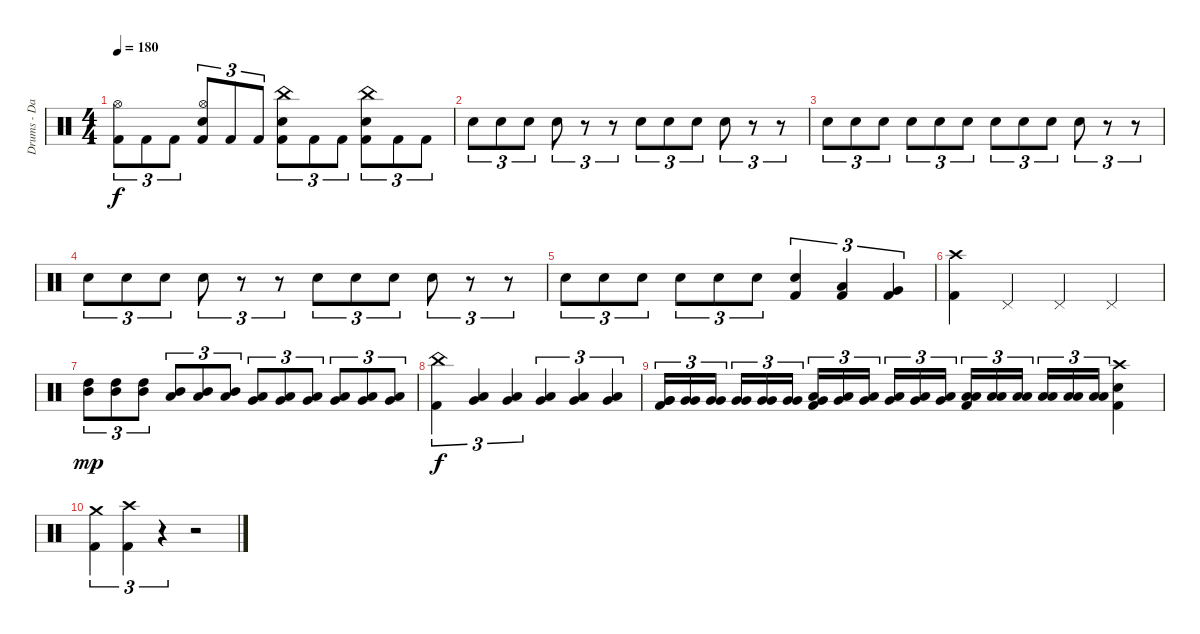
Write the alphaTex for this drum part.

\track ("Drums - Dan Zimmermann" "Drums - Da") {instrument percussion}
\staff {score}
\articulation defaults
\ts (4 4)
\tempo 180
\clef neutral
\ks c
("Kick (hit) 2" "Hi-Hat (open)").8{tu (3 2) dy f} "Kick (hit) 2".8{tu (3 2)} "Kick (hit) 2".8{tu (3 2)} ("Kick (hit) 2" "Electric Snare (hit)" "Hi-Hat (open)").8{tu (3 2)} "Kick (hit) 2".8{tu (3 2)} "Kick (hit) 2".8{tu (3 2)} ("Kick (hit) 2" "Electric Snare (hit)" "China (hit)").8{tu (3 2)} "Kick (hit) 2".8{tu (3 2)} "Kick (hit) 2".8{tu (3 2)} ("Kick (hit) 2" "Electric Snare (hit)" "China (hit)").8{tu (3 2)} "Kick (hit) 2".8{tu (3 2)} "Kick (hit) 2".8{tu (3 2)} |
"Electric Snare (hit)".8{tu (3 2)} "Electric Snare (hit)".8{tu (3 2)} "Electric Snare (hit)".8{tu (3 2)} "Electric Snare (hit)".8{tu (3 2)} r.8{tu (3 2)} r.8{tu (3 2)} "Electric Snare (hit)".8{tu (3 2)} "Electric Snare (hit)".8{tu (3 2)} "Electric Snare (hit)".8{tu (3 2)} "Electric Snare (hit)".8{tu (3 2)} r.8{tu (3 2)} r.8{tu (3 2)} |
"Electric Snare (hit)".8{tu (3 2)} "Electric Snare (hit)".8{tu (3 2)} "Electric Snare (hit)".8{tu (3 2)} "Electric Snare (hit)".8{tu (3 2)} "Electric Snare (hit)".8{tu (3 2)} "Electric Snare (hit)".8{tu (3 2)} "Electric Snare (hit)".8{tu (3 2)} "Electric Snare (hit)".8{tu (3 2)} "Electric Snare (hit)".8{tu (3 2)} "Electric Snare (hit)".8{tu (3 2)} r.8{tu (3 2)} r.8{tu (3 2)} |
"Electric Snare (hit)".8{tu (3 2)} "Electric Snare (hit)".8{tu (3 2)} "Electric Snare (hit)".8{tu (3 2)} "Electric Snare (hit)".8{tu (3 2)} r.8{tu (3 2)} r.8{tu (3 2)} "Electric Snare (hit)".8{tu (3 2)} "Electric Snare (hit)".8{tu (3 2)} "Electric Snare (hit)".8{tu (3 2)} "Electric Snare (hit)".8{tu (3 2)} r.8{tu (3 2)} r.8{tu (3 2)} |
"Electric Snare (hit)".8{tu (3 2)} "Electric Snare (hit)".8{tu (3 2)} "Electric Snare (hit)".8{tu (3 2)} "Electric Snare (hit)".8{tu (3 2)} "Electric Snare (hit)".8{tu (3 2)} "Electric Snare (hit)".8{tu (3 2)} ("Kick (hit) 2" "Electric Snare (hit)").4{tu (3 2)} ("Kick (hit) 2" "Low Tom (hit)").4{tu (3 2)} ("Kick (hit) 2" "Very Low Tom (hit)").4{tu (3 2)} |
("Kick (hit) 2" "Crash high (hit)").4 "Pedal Hi-Hat (hit)".4 "Pedal Hi-Hat (hit)".4 "Pedal Hi-Hat (hit)".4 |
("Mid Tom (hit)" "High Tom (hit)").8{tu (3 2) dy mp} ("Mid Tom (hit)" "High Tom (hit)").8{tu (3 2)} ("Mid Tom (hit)" "High Tom (hit)").8{tu (3 2)} ("Low Tom (hit)" "Mid Tom (hit)").8{tu (3 2)} ("Low Tom (hit)" "Mid Tom (hit)").8{tu (3 2)} ("Low Tom (hit)" "Mid Tom (hit)").8{tu (3 2)} ("Very Low Tom (hit)" "Low Tom (hit)").8{tu (3 2)} ("Very Low Tom (hit)" "Low Tom (hit)").8{tu (3 2)} ("Very Low Tom (hit)" "Low Tom (hit)").8{tu (3 2)} ("Low Floor Tom (hit)" "Very Low Tom (hit)").8{tu (3 2)} ("Low Floor Tom (hit)" "Very Low Tom (hit)").8{tu (3 2)} ("Low Floor Tom (hit)" "Very Low Tom (hit)").8{tu (3 2)} |
("Kick (hit) 2" "China (hit)").4{tu (3 2) dy f} ("Very Low Tom (hit)" "Low Floor Tom (hit)").4{tu (3 2)} ("Very Low Tom (hit)" "Low Floor Tom (hit)").4{tu (3 2)} ("Very Low Tom (hit)" "Low Floor Tom (hit)").4{tu (3 2)} ("Very Low Tom (hit)" "Low Floor Tom (hit)").4{tu (3 2)} ("Very Low Tom (hit)" "Low Floor Tom (hit)").4{tu (3 2)} |
("Kick (hit) 2" "Very Low Tom (hit)" "Very Low Tom (hit)").16{tu (3 2)} ("Very Low Tom (hit)" "Very Low Tom (hit)").16{tu (3 2)} ("Very Low Tom (hit)" "Very Low Tom (hit)").16{tu (3 2)} ("Very Low Tom (hit)" "Very Low Tom (hit)").16{tu (3 2)} ("Very Low Tom (hit)" "Very Low Tom (hit)").16{tu (3 2)} ("Very Low Tom (hit)" "Very Low Tom (hit)").16{tu (3 2)} ("Kick (hit) 2" "Very Low Tom (hit)" "Low Floor Tom (hit)").16{tu (3 2)} ("Very Low Tom (hit)" "Low Floor Tom (hit)").16{tu (3 2)} ("Very Low Tom (hit)" "Low Floor Tom (hit)").16{tu (3 2)} ("Very Low Tom (hit)" "Low Floor Tom (hit)").16{tu (3 2)} ("Very Low Tom (hit)" "Low Floor Tom (hit)").16{tu (3 2)} ("Very Low Tom (hit)" "Low Floor Tom (hit)").16{tu (3 2)} ("Kick (hit) 2" "Low Floor Tom (hit)" "Low Floor Tom (hit)").16{tu (3 2)} ("Low Floor Tom (hit)" "Low Floor Tom (hit)").16{tu (3 2)} ("Low Floor Tom (hit)" "Low Floor Tom (hit)").16{tu (3 2)} ("Low Floor Tom (hit)" "Low Floor Tom (hit)").16{tu (3 2)} ("Low Floor Tom (hit)" "Low Floor Tom (hit)").16{tu (3 2)} ("Low Floor Tom (hit)" "Low Floor Tom (hit)").16{tu (3 2)} ("Kick (hit) 2" "Electric Snare (hit)" "Crash high (hit)").4 |
("Kick (hit) 2" "Crash medium (hit)").4{tu (3 2)} ("Kick (hit) 2" "Crash high (hit)").4{tu (3 2)} r.4{tu (3 2)} r.2
